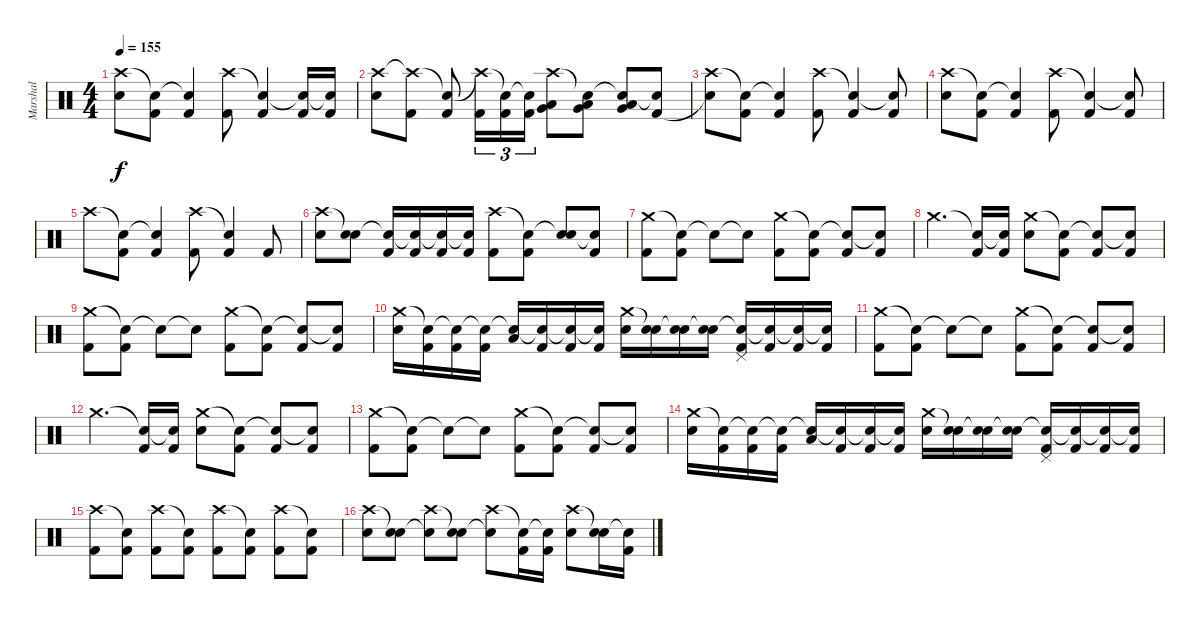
\track ("Marshal" "Marshal") {instrument percussion}
\staff {score}
\articulation defaults
\ts (4 4)
\tempo 155
\clef neutral
\ks c
("Crash high (hit)" "Snare (hit)"{t}).8{dy f} ("Snare (hit)"{t} "Kick (hit) 2").8 ("Snare (hit)"{t} "Kick (hit) 2").4 ("Crash high (hit)" "Kick (hit) 2").8 ("Snare (hit)"{t} "Kick (hit) 2").4 ("Snare (hit)"{t} "Kick (hit) 2").16 ("Snare (hit)"{t} "Kick (hit) 2").16 |
("Crash high (hit)" "Electric Snare (hit)").8 ("Crash high (hit)"{t} "Kick (hit) 2").8 ("Snare (hit)"{t} "Kick (hit) 2").8 ("Crash high (hit)"{t} "Kick (hit) 2").16{tu (3 2)} ("Snare (hit)"{t} "Kick (hit) 2").16{tu (3 2)} ("Snare (hit)"{t} "Kick (hit) 2").16{tu (3 2)} ("Crash high (hit)" "Very Low Tom (hit)" "Low Floor Tom (hit)").8 ("Snare (hit)"{t} "Very Low Tom (hit)" "Low Floor Tom (hit)").8 ("Snare (hit)"{t} "Very Low Tom (hit)" "Low Floor Tom (hit)").8 ("Snare (hit)"{t} "Kick (hit) 2").8 |
("Crash high (hit)" "Snare (hit)"{t}).8 ("Snare (hit)"{t} "Kick (hit) 2").8 ("Snare (hit)"{t} "Kick (hit) 2").4 ("Crash high (hit)" "Kick (hit) 2").8 ("Snare (hit)"{t} "Kick (hit) 2").4 ("Snare (hit)"{t} "Kick (hit) 2").8 |
("Crash high (hit)" "Electric Snare (hit)").8 ("Snare (hit)"{t} "Kick (hit) 2").8 ("Snare (hit)"{t} "Kick (hit) 2").4 ("Crash high (hit)" "Kick (hit) 2").8 ("Snare (hit)"{t} "Kick (hit) 2").4 ("Snare (hit)"{t} "Kick (hit) 2").8 |
"Crash high (hit)".8 ("Snare (hit)"{t} "Kick (hit) 2").8 ("Snare (hit)"{t} "Kick (hit) 2").4 ("Crash high (hit)" "Kick (hit) 2").8 ("Snare (hit)"{t} "Kick (hit) 2").4 "Kick (hit) 2".8 |
("Crash high (hit)" "Electric Snare (hit)").8 ("Snare (hit)"{t} "Electric Snare (hit)").8 ("Snare (hit)"{t} "Kick (hit) 2").16 ("Snare (hit)"{t} "Kick (hit) 2").16 ("Snare (hit)"{t} "Kick (hit) 2").16 ("Snare (hit)"{t} "Kick (hit) 2").16 ("Crash high (hit)" "Kick (hit) 2").8 ("Snare (hit)"{t} "Kick (hit) 2").8 ("Snare (hit)"{t} "Electric Snare (hit)").8 ("Snare (hit)"{t} "Kick (hit) 2").8 |
("Crash medium (hit)" "Kick (hit) 2").8 ("Snare (hit)"{t} "Kick (hit) 2").8 "Snare (hit)"{t}.8 "Snare (hit)"{t}.8 ("Crash medium (hit)" "Kick (hit) 2").8 ("Snare (hit)"{t} "Kick (hit) 2").8 ("Snare (hit)"{t} "Kick (hit) 2").8 ("Snare (hit)"{t} "Kick (hit) 2").8 |
"Crash medium (hit)".4{d} ("Snare (hit)"{t} "Kick (hit) 2").16 ("Snare (hit)"{t} "Kick (hit) 2").16 ("Crash medium (hit)" "Electric Snare (hit)").8 ("Snare (hit)"{t} "Kick (hit) 2").8 ("Snare (hit)"{t} "Kick (hit) 2").8 ("Snare (hit)"{t} "Kick (hit) 2").8 |
("Crash medium (hit)" "Kick (hit) 2").8 ("Snare (hit)"{t} "Kick (hit) 2").8 "Snare (hit)"{t}.8 "Snare (hit)"{t}.8 ("Crash medium (hit)" "Kick (hit) 2").8 ("Snare (hit)"{t} "Kick (hit) 2").8 ("Snare (hit)"{t} "Kick (hit) 2").8 ("Snare (hit)"{t} "Kick (hit) 2").8 |
("Crash medium (hit)" "Electric Snare (hit)").16 ("Snare (hit)"{t} "Kick (hit) 2").16 ("Snare (hit)"{t} "Kick (hit) 2").16 ("Snare (hit)"{t} "Kick (hit) 2").16 ("Snare (hit)"{t} "Low Floor Tom (hit)").16 ("Snare (hit)"{t} "Kick (hit) 2").16 ("Snare (hit)"{t} "Kick (hit) 2").16 ("Snare (hit)"{t} "Kick (hit) 2").16 ("Crash medium (hit)" "Electric Snare (hit)").16 ("Snare (hit)"{t} "Electric Snare (hit)").16 ("Snare (hit)"{t} "Electric Snare (hit)").16 ("Snare (hit)"{t} "Electric Snare (hit)").16 ("Snare (hit)"{t} "Pedal Hi-Hat (hit)" "Kick (hit) 2").16 ("Snare (hit)"{t} "Kick (hit) 2").16 ("Snare (hit)"{t} "Kick (hit) 2").16 ("Snare (hit)"{t} "Kick (hit) 2").16 |
("Crash medium (hit)" "Kick (hit) 2").8 ("Snare (hit)"{t} "Kick (hit) 2").8 "Snare (hit)"{t}.8 "Snare (hit)"{t}.8 ("Crash medium (hit)" "Kick (hit) 2").8 ("Snare (hit)"{t} "Kick (hit) 2").8 ("Snare (hit)"{t} "Kick (hit) 2").8 ("Snare (hit)"{t} "Kick (hit) 2").8 |
"Crash medium (hit)".4{d} ("Snare (hit)"{t} "Kick (hit) 2").16 ("Snare (hit)"{t} "Kick (hit) 2").16 ("Crash medium (hit)" "Electric Snare (hit)").8 ("Snare (hit)"{t} "Kick (hit) 2").8 ("Snare (hit)"{t} "Kick (hit) 2").8 ("Snare (hit)"{t} "Kick (hit) 2").8 |
("Crash medium (hit)" "Kick (hit) 2").8 ("Snare (hit)"{t} "Kick (hit) 2").8 "Snare (hit)"{t}.8 "Snare (hit)"{t}.8 ("Crash medium (hit)" "Kick (hit) 2").8 ("Snare (hit)"{t} "Kick (hit) 2").8 ("Snare (hit)"{t} "Kick (hit) 2").8 ("Snare (hit)"{t} "Kick (hit) 2").8 |
("Crash medium (hit)" "Electric Snare (hit)").16 ("Snare (hit)"{t} "Kick (hit) 2").16 ("Snare (hit)"{t} "Kick (hit) 2").16 ("Snare (hit)"{t} "Kick (hit) 2").16 ("Snare (hit)"{t} "Low Floor Tom (hit)").16 ("Snare (hit)"{t} "Kick (hit) 2").16 ("Snare (hit)"{t} "Kick (hit) 2").16 ("Snare (hit)"{t} "Kick (hit) 2").16 ("Crash medium (hit)" "Electric Snare (hit)").16 ("Snare (hit)"{t} "Electric Snare (hit)").16 ("Snare (hit)"{t} "Electric Snare (hit)").16 ("Snare (hit)"{t} "Electric Snare (hit)").16 ("Snare (hit)"{t} "Pedal Hi-Hat (hit)" "Kick (hit) 2").16 ("Snare (hit)"{t} "Kick (hit) 2").16 ("Snare (hit)"{t} "Kick (hit) 2").16 ("Snare (hit)"{t} "Kick (hit) 2").16 |
("Crash high (hit)" "Kick (hit) 2").8 ("Snare (hit)"{t} "Kick (hit) 2").8 ("Crash high (hit)" "Kick (hit) 2").8 ("Snare (hit)"{t} "Kick (hit) 2").8 ("Crash high (hit)" "Kick (hit) 2").8 ("Snare (hit)"{t} "Kick (hit) 2").8 ("Crash high (hit)" "Kick (hit) 2").8 ("Snare (hit)"{t} "Kick (hit) 2").8 |
("Crash high (hit)" "Electric Snare (hit)").8 ("Snare (hit)"{t} "Electric Snare (hit)").8 ("Crash high (hit)" "Snare (hit)"{t}).8 ("Snare (hit)"{t} "Electric Snare (hit)").8 ("Crash high (hit)" "Snare (hit)"{t}).8 ("Snare (hit)"{t} "Kick (hit) 2").16 ("Snare (hit)"{t} "Kick (hit) 2").16 ("Crash high (hit)" "Electric Snare (hit)").8 ("Snare (hit)"{t} "Electric Snare (hit)").16 ("Snare (hit)"{t} "Kick (hit) 2").16
